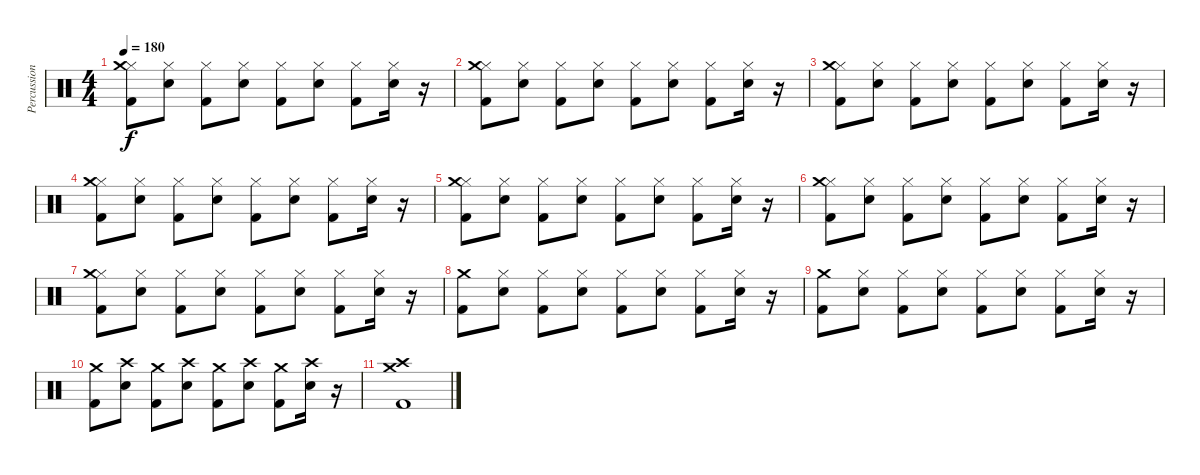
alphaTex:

\track ("Percussion" "Percussion") {instrument percussion}
\staff {score}
\articulation defaults
\ts (4 4)
\tempo 180
\clef neutral
\ks c
("Hi-Hat (closed)" "Kick (hit) 2" "Crash medium (hit)").8{dy f} ("Hi-Hat (closed)" "Snare (hit) 2").8 ("Hi-Hat (closed)" "Kick (hit) 2").8 ("Hi-Hat (closed)" "Snare (hit) 2").8 ("Hi-Hat (closed)" "Kick (hit) 2").8 ("Hi-Hat (closed)" "Snare (hit) 2").8 ("Hi-Hat (closed)" "Kick (hit) 2").8 ("Hi-Hat (closed)" "Snare (hit) 2").16 r.16 |
("Hi-Hat (closed)" "Kick (hit) 2" "Crash medium (hit)").8 ("Hi-Hat (closed)" "Snare (hit) 2").8 ("Hi-Hat (closed)" "Kick (hit) 2").8 ("Hi-Hat (closed)" "Snare (hit) 2").8 ("Hi-Hat (closed)" "Kick (hit) 2").8 ("Hi-Hat (closed)" "Snare (hit) 2").8 ("Hi-Hat (closed)" "Kick (hit) 2").8 ("Hi-Hat (closed)" "Snare (hit) 2").16 r.16 |
("Hi-Hat (closed)" "Kick (hit) 2" "Crash medium (hit)").8 ("Hi-Hat (closed)" "Snare (hit) 2").8 ("Hi-Hat (closed)" "Kick (hit) 2").8 ("Hi-Hat (closed)" "Snare (hit) 2").8 ("Hi-Hat (closed)" "Kick (hit) 2").8 ("Hi-Hat (closed)" "Snare (hit) 2").8 ("Hi-Hat (closed)" "Kick (hit) 2").8 ("Hi-Hat (closed)" "Snare (hit) 2").16 r.16 |
("Hi-Hat (closed)" "Kick (hit) 2" "Crash medium (hit)").8 ("Hi-Hat (closed)" "Snare (hit) 2").8 ("Hi-Hat (closed)" "Kick (hit) 2").8 ("Hi-Hat (closed)" "Snare (hit) 2").8 ("Hi-Hat (closed)" "Kick (hit) 2").8 ("Hi-Hat (closed)" "Snare (hit) 2").8 ("Hi-Hat (closed)" "Kick (hit) 2").8 ("Hi-Hat (closed)" "Snare (hit) 2").16 r.16 |
("Hi-Hat (closed)" "Kick (hit) 2" "Crash medium (hit)").8 ("Hi-Hat (closed)" "Snare (hit) 2").8 ("Hi-Hat (closed)" "Kick (hit) 2").8 ("Hi-Hat (closed)" "Snare (hit) 2").8 ("Hi-Hat (closed)" "Kick (hit) 2").8 ("Hi-Hat (closed)" "Snare (hit) 2").8 ("Hi-Hat (closed)" "Kick (hit) 2").8 ("Hi-Hat (closed)" "Snare (hit) 2").16 r.16 |
("Hi-Hat (closed)" "Kick (hit) 2" "Crash medium (hit)").8 ("Hi-Hat (closed)" "Snare (hit) 2").8 ("Hi-Hat (closed)" "Kick (hit) 2").8 ("Hi-Hat (closed)" "Snare (hit) 2").8 ("Hi-Hat (closed)" "Kick (hit) 2").8 ("Hi-Hat (closed)" "Snare (hit) 2").8 ("Hi-Hat (closed)" "Kick (hit) 2").8 ("Hi-Hat (closed)" "Snare (hit) 2").16 r.16 |
("Hi-Hat (closed)" "Kick (hit) 2" "Crash medium (hit)").8 ("Hi-Hat (closed)" "Snare (hit) 2").8 ("Hi-Hat (closed)" "Kick (hit) 2").8 ("Hi-Hat (closed)" "Snare (hit) 2").8 ("Hi-Hat (closed)" "Kick (hit) 2").8 ("Hi-Hat (closed)" "Snare (hit) 2").8 ("Hi-Hat (closed)" "Kick (hit) 2").8 ("Hi-Hat (closed)" "Snare (hit) 2").16 r.16 |
("Kick (hit) 2" "Crash medium (hit)").8 ("Hi-Hat (closed)" "Snare (hit) 2").8 ("Hi-Hat (closed)" "Kick (hit) 2").8 ("Hi-Hat (closed)" "Snare (hit) 2").8 ("Hi-Hat (closed)" "Kick (hit) 2").8 ("Hi-Hat (closed)" "Snare (hit) 2").8 ("Hi-Hat (closed)" "Kick (hit) 2").8 ("Hi-Hat (closed)" "Snare (hit) 2").16 r.16 |
("Kick (hit) 2" "Crash medium (hit)").8 ("Hi-Hat (closed)" "Snare (hit) 2").8 ("Hi-Hat (closed)" "Kick (hit) 2").8 ("Hi-Hat (closed)" "Snare (hit) 2").8 ("Hi-Hat (closed)" "Kick (hit) 2").8 ("Hi-Hat (closed)" "Snare (hit) 2").8 ("Hi-Hat (closed)" "Kick (hit) 2").8 ("Hi-Hat (closed)" "Snare (hit) 2").16 r.16 |
("Kick (hit) 2" "Crash medium (hit)").8 ("Snare (hit) 2" "Crash high (hit)").8 ("Kick (hit) 2" "Crash medium (hit)").8 ("Snare (hit) 2" "Crash high (hit)").8 ("Kick (hit) 2" "Crash medium (hit)").8 ("Snare (hit) 2" "Crash high (hit)").8 ("Kick (hit) 2" "Crash medium (hit)").8 ("Snare (hit) 2" "Crash high (hit)").16 r.16 |
("Crash high (hit)" "Crash medium (hit)" "Kick (hit) 2").1
